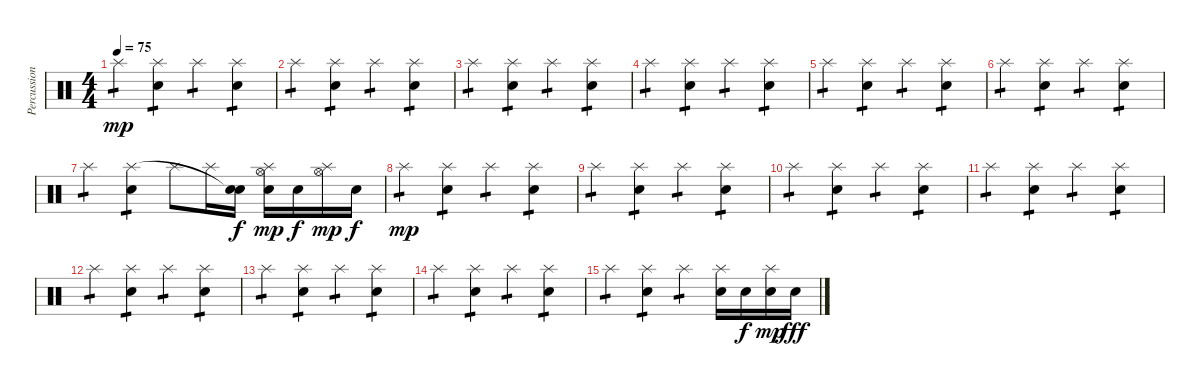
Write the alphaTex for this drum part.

\track ("Percussion" "Percussion") {instrument percussion}
\staff {score}
\articulation defaults
\ts (4 4)
\tempo 75
\clef neutral
\ks c "Splash (hit)".4{tp 1 dy mp}
("Electric Snare (hit)" "Splash (hit)").4{tp 1} "Splash (hit)".4{tp 1} ("Electric Snare (hit)" "Splash (hit)").4{tp 1} |
"Splash (hit)".4{tp 1} ("Electric Snare (hit)" "Splash (hit)").4{tp 1} "Splash (hit)".4{tp 1} ("Electric Snare (hit)" "Splash (hit)").4{tp 1} |
"Splash (hit)".4{tp 1} ("Electric Snare (hit)" "Splash (hit)").4{tp 1} "Splash (hit)".4{tp 1} ("Electric Snare (hit)" "Splash (hit)").4{tp 1} |
"Splash (hit)".4{tp 1} ("Electric Snare (hit)" "Splash (hit)").4{tp 1} "Splash (hit)".4{tp 1} ("Electric Snare (hit)" "Splash (hit)").4{tp 1} |
"Splash (hit)".4{tp 1} ("Electric Snare (hit)" "Splash (hit)").4{tp 1} "Splash (hit)".4{tp 1} ("Electric Snare (hit)" "Splash (hit)").4{tp 1} |
"Splash (hit)".4{tp 1} ("Electric Snare (hit)" "Splash (hit)").4{tp 1} "Splash (hit)".4{tp 1} ("Electric Snare (hit)" "Splash (hit)").4{tp 1} |
"Splash (hit)".4{tp 1} ("Electric Snare (hit)" "Splash (hit)").4{tp 1} "Splash (hit)".8 "Splash (hit)".16 ("Electric Snare (hit)" "Snare (hit)"{t}).16{dy f} ("Hi-Hat (open)" "Electric Snare (hit)" "Splash (hit)").16{dy mp} "Electric Snare (hit)".16{dy f} ("Hi-Hat (open)" "Splash (hit)").16{dy mp} "Electric Snare (hit)".16{dy f} |
"Splash (hit)".4{tp 1 dy mp} ("Electric Snare (hit)" "Splash (hit)").4{tp 1} "Splash (hit)".4{tp 1} ("Electric Snare (hit)" "Splash (hit)").4{tp 1} |
"Splash (hit)".4{tp 1} ("Electric Snare (hit)" "Splash (hit)").4{tp 1} "Splash (hit)".4{tp 1} ("Electric Snare (hit)" "Splash (hit)").4{tp 1} |
"Splash (hit)".4{tp 1} ("Electric Snare (hit)" "Splash (hit)").4{tp 1} "Splash (hit)".4{tp 1} ("Electric Snare (hit)" "Splash (hit)").4{tp 1} |
"Splash (hit)".4{tp 1} ("Electric Snare (hit)" "Splash (hit)").4{tp 1} "Splash (hit)".4{tp 1} ("Electric Snare (hit)" "Splash (hit)").4{tp 1} |
"Splash (hit)".4{tp 1} ("Electric Snare (hit)" "Splash (hit)").4{tp 1} "Splash (hit)".4{tp 1} ("Electric Snare (hit)" "Splash (hit)").4{tp 1} |
"Splash (hit)".4{tp 1} ("Electric Snare (hit)" "Splash (hit)").4{tp 1} "Splash (hit)".4{tp 1} ("Electric Snare (hit)" "Splash (hit)").4{tp 1} |
"Splash (hit)".4{tp 1} ("Electric Snare (hit)" "Splash (hit)").4{tp 1} "Splash (hit)".4{tp 1} ("Electric Snare (hit)" "Splash (hit)").4{tp 1} |
"Splash (hit)".4{tp 1} ("Electric Snare (hit)" "Splash (hit)").4{tp 1} "Splash (hit)".4{tp 1} ("Electric Snare (hit)" "Splash (hit)").16 "Electric Snare (hit)".16{dy f} ("Electric Snare (hit)" "Splash (hit)").16{dy mp} "Electric Snare (hit)".16{dy fff}
